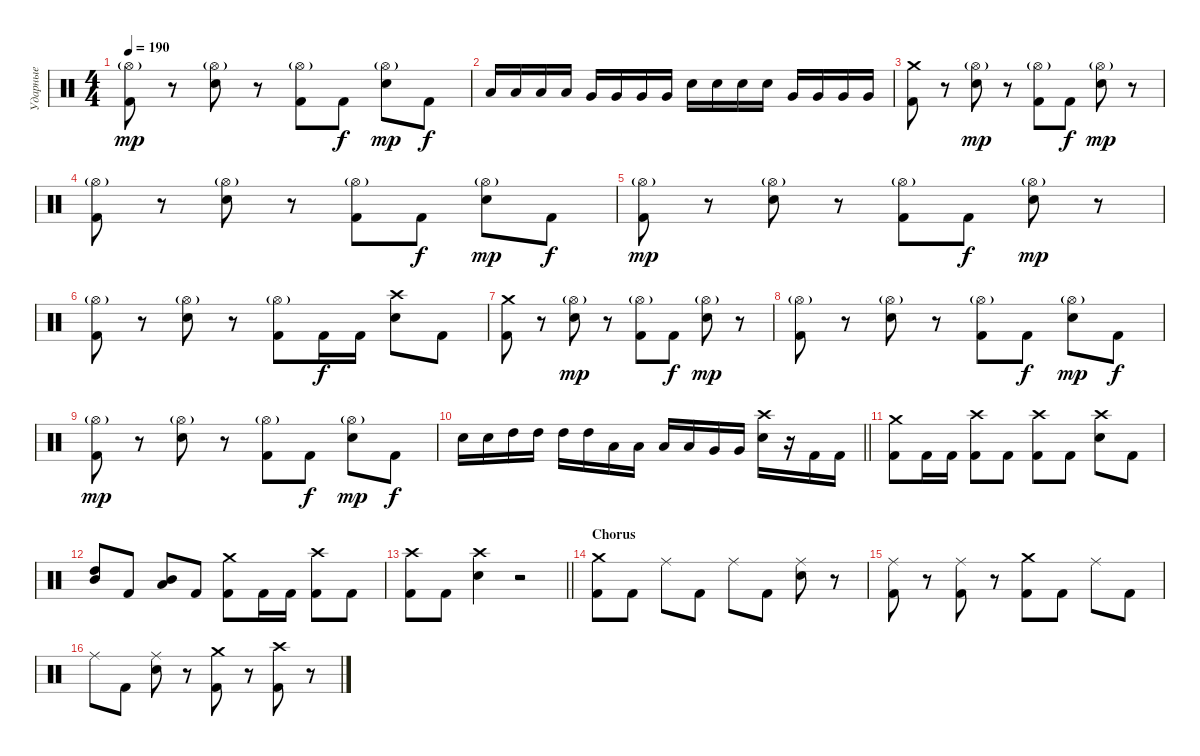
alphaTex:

\track ("Ударные" "Ударные") {instrument percussion}
\staff {score}
\articulation defaults
\ts (4 4)
\tempo 190
\clef neutral
\ks c
("Hi-Hat (open)"{g} "Kick (hit) 2").8{dy mp} r.8 ("Hi-Hat (open)"{g} "Electric Snare (hit)").8 r.8 ("Hi-Hat (open)"{g} "Kick (hit) 2").8 "Kick (hit) 2".8{dy f} ("Hi-Hat (open)"{g} "Electric Snare (hit)").8{dy mp} "Kick (hit) 2".8{dy f} |
"Low Tom (hit)".16 "Low Tom (hit)".16 "Low Tom (hit)".16 "Low Tom (hit)".16 "Very Low Tom (hit)".16 "Very Low Tom (hit)".16 "Very Low Tom (hit)".16 "Very Low Tom (hit)".16 "Electric Snare (hit)".16 "Electric Snare (hit)".16 "Electric Snare (hit)".16 "Electric Snare (hit)".16 "Very Low Tom (hit)".16 "Very Low Tom (hit)".16 "Very Low Tom (hit)".16 "Very Low Tom (hit)".16 |
("Crash medium (hit)" "Kick (hit) 2").8 r.8 ("Hi-Hat (open)"{g} "Electric Snare (hit)").8{dy mp} r.8 ("Hi-Hat (open)"{g} "Kick (hit) 2").8 "Kick (hit) 2".8{dy f} ("Hi-Hat (open)"{g} "Electric Snare (hit)").8{dy mp} r.8 |
("Hi-Hat (open)"{g} "Kick (hit) 2").8 r.8 ("Hi-Hat (open)"{g} "Electric Snare (hit)").8 r.8 ("Hi-Hat (open)"{g} "Kick (hit) 2").8 "Kick (hit) 2".8{dy f} ("Hi-Hat (open)"{g} "Electric Snare (hit)").8{dy mp} "Kick (hit) 2".8{dy f} |
("Hi-Hat (open)"{g} "Kick (hit) 2").8{dy mp} r.8 ("Hi-Hat (open)"{g} "Electric Snare (hit)").8 r.8 ("Hi-Hat (open)"{g} "Kick (hit) 2").8 "Kick (hit) 2".8{dy f} ("Hi-Hat (open)"{g} "Electric Snare (hit)").8{dy mp} r.8 |
("Hi-Hat (open)"{g} "Kick (hit) 2").8 r.8 ("Hi-Hat (open)"{g} "Electric Snare (hit)").8 r.8 ("Hi-Hat (open)"{g} "Kick (hit) 2").8 "Kick (hit) 2".16{dy f} "Kick (hit) 2".16 ("Crash high (hit)" "Electric Snare (hit)").8 "Kick (hit) 2".8 |
("Crash medium (hit)" "Kick (hit) 2").8 r.8 ("Hi-Hat (open)"{g} "Electric Snare (hit)").8{dy mp} r.8 ("Hi-Hat (open)"{g} "Kick (hit) 2").8 "Kick (hit) 2".8{dy f} ("Hi-Hat (open)"{g} "Electric Snare (hit)").8{dy mp} r.8 |
("Hi-Hat (open)"{g} "Kick (hit) 2").8 r.8 ("Hi-Hat (open)"{g} "Electric Snare (hit)").8 r.8 ("Hi-Hat (open)"{g} "Kick (hit) 2").8 "Kick (hit) 2".8{dy f} ("Hi-Hat (open)"{g} "Electric Snare (hit)").8{dy mp} "Kick (hit) 2".8{dy f} |
("Hi-Hat (open)"{g} "Kick (hit) 2").8{dy mp} r.8 ("Hi-Hat (open)"{g} "Electric Snare (hit)").8 r.8 ("Hi-Hat (open)"{g} "Kick (hit) 2").8 "Kick (hit) 2".8{dy f} ("Hi-Hat (open)"{g} "Electric Snare (hit)").8{dy mp} "Kick (hit) 2".8{dy f} |
\barLineRight lightlight "Electric Snare (hit)".16 "Electric Snare (hit)".16 "High Tom (hit)".16 "High Tom (hit)".16 "High Tom (hit)".16 "High Tom (hit)".16 "Low Tom (hit)".16 "Low Tom (hit)".16 "Low Tom (hit)".16 "Low Tom (hit)".16 "Very Low Tom (hit)".16 "Very Low Tom (hit)".16
("Crash high (hit)" "Electric Snare (hit)").16 r.16 "Kick (hit) 2".16 "Kick (hit) 2".16 |
\section ("" "")
("Crash medium (hit)" "Kick (hit) 2").8 "Kick (hit) 2".16 "Kick (hit) 2".16 ("Crash high (hit)" "Kick (hit) 2").8 "Kick (hit) 2".8 ("Crash high (hit)" "Kick (hit) 2").8 "Kick (hit) 2".8 ("Crash high (hit)" "Electric Snare (hit)").8 "Kick (hit) 2".8 |
("Mid Tom (hit)" "High Tom (hit)").8 "Kick (hit) 2".8 ("Low Tom (hit)" "Mid Tom (hit)").8 "Kick (hit) 2".8 ("Crash medium (hit)" "Kick (hit) 2").8 "Kick (hit) 2".16 "Kick (hit) 2".16 ("Crash high (hit)" "Kick (hit) 2").8 "Kick (hit) 2".8 |
\barLineRight lightlight
("Crash high (hit)" "Kick (hit) 2").8 "Kick (hit) 2".8 ("Crash high (hit)" "Electric Snare (hit)").4 r.2 |
\section ("" "Chorus")
("Crash medium (hit)" "Kick (hit) 2").8 "Kick (hit) 2".8 "Ride (middle)".8 "Kick (hit) 2".8 "Ride (middle)".8 "Kick (hit) 2".8 ("Ride (middle)" "Electric Snare (hit)").8 r.8 |
("Ride (middle)" "Kick (hit) 2").8 r.8 ("Ride (middle)" "Kick (hit) 2").8 r.8 ("Crash medium (hit)" "Kick (hit) 2").8 "Kick (hit) 2".8 "Ride (middle)".8 "Kick (hit) 2".8 |
"Ride (middle)".8 "Kick (hit) 2".8 ("Ride (middle)" "Electric Snare (hit)").8 r.8 ("Crash medium (hit)" "Kick (hit) 2").8 r.8 ("Crash high (hit)" "Kick (hit) 2").8 r.8
